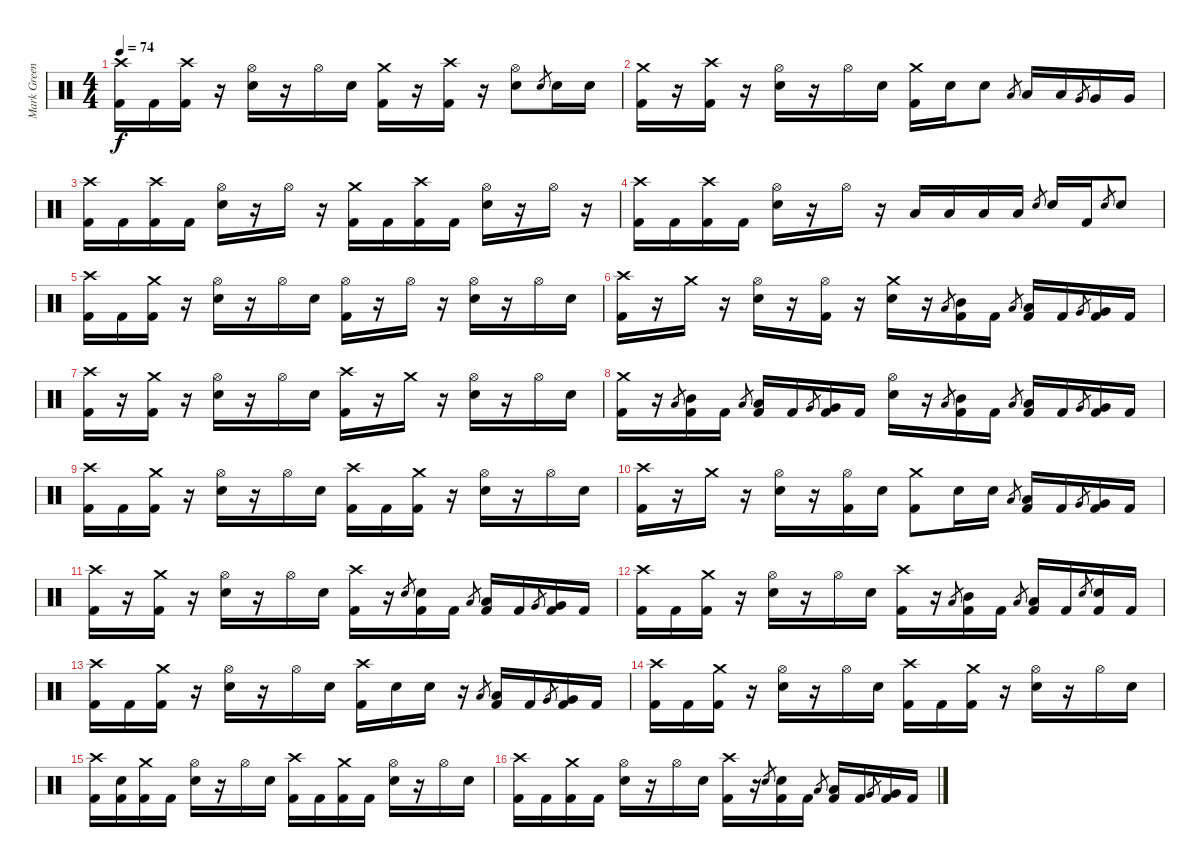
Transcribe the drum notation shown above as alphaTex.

\track ("Mark Greening" "Mark Green") {instrument percussion}
\staff {score}
\articulation defaults
\ts (4 4)
\tempo 74
\clef neutral
\ks c
("Crash high (hit)" "Kick (hit) 2").16{dy f} "Kick (hit) 2".16 ("Crash high (hit)" "Kick (hit) 2").16 r.16 ("Hi-Hat (open)" "Snare (hit) 2").16 r.16 "Hi-Hat (open)".16 "Snare (hit) 2".16 ("Crash medium (hit)" "Kick (hit) 2").16 r.16 ("Crash high (hit)" "Kick (hit) 2").16 r.16 ("Hi-Hat (open)" "Snare (hit) 2").8 "Snare (hit) 2".8{gr} "Snare (hit) 2".16 "Snare (hit) 2".16 |
("Crash medium (hit)" "Kick (hit) 2").16 r.16 ("Crash high (hit)" "Kick (hit) 2").16 r.16 ("Hi-Hat (open)" "Snare (hit) 2").16 r.16 "Hi-Hat (open)".16 "Snare (hit) 2".16 ("Crash medium (hit)" "Kick (hit) 2").16 "Snare (hit) 2".16 "Snare (hit) 2".8 "Low Tom (hit)".8{gr} "Low Tom (hit)".16 "Low Tom (hit)".16 "Very Low Tom (hit)".8{gr} "Very Low Tom (hit)".16 "Very Low Tom (hit)".16 |
("Crash high (hit)" "Kick (hit) 2").16 "Kick (hit) 2".16 ("Crash high (hit)" "Kick (hit) 2").16 "Kick (hit) 2".16 ("Hi-Hat (open)" "Snare (hit) 2").16 r.16 "Hi-Hat (open)".16 r.16 ("Crash medium (hit)" "Kick (hit) 2").16 "Kick (hit) 2".16 ("Crash high (hit)" "Kick (hit) 2").16 "Kick (hit) 2".16 ("Hi-Hat (open)" "Snare (hit) 2").16 r.16 "Hi-Hat (open)".16 r.16 |
("Crash high (hit)" "Kick (hit) 2").16 "Kick (hit) 2".16 ("Crash high (hit)" "Kick (hit) 2").16 "Kick (hit) 2".16 ("Hi-Hat (open)" "Snare (hit) 2").16 r.16 "Hi-Hat (open)".16 r.16 "Low Tom (hit)".16 "Low Tom (hit)".16 "Low Tom (hit)".16 "Low Tom (hit)".16 "Snare (hit) 2".8{gr} "Snare (hit) 2".16 "Kick (hit) 2".16 "Snare (hit) 2".8{gr} "Snare (hit) 2".8 |
("Crash high (hit)" "Kick (hit) 2").16 "Kick (hit) 2".16 ("Crash medium (hit)" "Kick (hit) 2").16 r.16 ("Hi-Hat (open)" "Snare (hit) 2").16 r.16 "Hi-Hat (open)".16 "Snare (hit) 2".16 ("Hi-Hat (open)" "Kick (hit) 2").16 r.16 "Hi-Hat (open)".16 r.16 ("Hi-Hat (open)" "Snare (hit) 2").16 r.16 "Hi-Hat (open)".16 "Snare (hit) 2".16 |
("Crash high (hit)" "Kick (hit) 2").16 r.16 "Crash medium (hit)".16 r.16 ("Hi-Hat (open)" "Snare (hit) 2").16 r.16 ("Hi-Hat (open)" "Kick (hit) 2").16 r.16 ("Crash medium (hit)" "Snare (hit) 2").16 r.16 "Low Tom (hit)".8{gr} ("Mid Tom (hit)" "Kick (hit) 2").16 "Kick (hit) 2".16 "Low Tom (hit)".8{gr} ("Low Tom (hit)" "Kick (hit) 2").16 "Kick (hit) 2".16 "Very Low Tom (hit)".8{gr} ("Very Low Tom (hit)" "Kick (hit) 2").16 "Kick (hit) 2".16 |
("Crash high (hit)" "Kick (hit) 2").16 r.16 ("Crash medium (hit)" "Kick (hit) 2").16 r.16 ("Hi-Hat (open)" "Snare (hit) 2").16 r.16 "Hi-Hat (open)".16 "Snare (hit) 2".16 ("Crash high (hit)" "Kick (hit) 2").16 r.16 "Crash medium (hit)".16 r.16 ("Hi-Hat (open)" "Snare (hit) 2").16 r.16 "Hi-Hat (open)".16 "Snare (hit) 2".16 |
("Crash medium (hit)" "Kick (hit) 2").16 r.16 "Low Tom (hit)".8{gr} ("Mid Tom (hit)" "Kick (hit) 2").16 "Kick (hit) 2".16 "Low Tom (hit)".8{gr} ("Low Tom (hit)" "Kick (hit) 2").16 "Kick (hit) 2".16 "Very Low Tom (hit)".8{gr} ("Very Low Tom (hit)" "Kick (hit) 2").16 "Kick (hit) 2".16 ("Hi-Hat (open)" "Snare (hit) 2").16 r.16 "Low Tom (hit)".8{gr} ("Mid Tom (hit)" "Kick (hit) 2").16 "Kick (hit) 2".16 "Low Tom (hit)".8{gr} ("Low Tom (hit)" "Kick (hit) 2").16 "Kick (hit) 2".16 "Very Low Tom (hit)".8{gr} ("Very Low Tom (hit)" "Kick (hit) 2").16 "Kick (hit) 2".16 |
("Crash high (hit)" "Kick (hit) 2").16 "Kick (hit) 2".16 ("Crash medium (hit)" "Kick (hit) 2").16 r.16 ("Hi-Hat (open)" "Snare (hit) 2").16 r.16 "Hi-Hat (open)".16 "Snare (hit) 2".16 ("Crash high (hit)" "Kick (hit) 2").16 "Kick (hit) 2".16 ("Crash medium (hit)" "Kick (hit) 2").16 r.16 ("Hi-Hat (open)" "Snare (hit) 2").16 r.16 "Hi-Hat (open)".16 "Snare (hit) 2".16 |
("Crash high (hit)" "Kick (hit) 2").16 r.16 "Crash medium (hit)".16 r.16 ("Hi-Hat (open)" "Snare (hit) 2").16 r.16 ("Hi-Hat (open)" "Kick (hit) 2").16 "Snare (hit) 2".16 ("Crash medium (hit)" "Kick (hit) 2").8 "Snare (hit) 2".16 "Snare (hit) 2".16 "Low Tom (hit)".8{gr} ("Low Tom (hit)" "Kick (hit) 2").16 "Kick (hit) 2".16 "Very Low Tom (hit)".8{gr} ("Very Low Tom (hit)" "Kick (hit) 2").16 "Kick (hit) 2".16 |
("Crash high (hit)" "Kick (hit) 2").16 r.16 ("Crash medium (hit)" "Kick (hit) 2").16 r.16 ("Hi-Hat (open)" "Snare (hit) 2").16 r.16 "Hi-Hat (open)".16 "Snare (hit) 2".16 ("Crash high (hit)" "Kick (hit) 2").16 r.16 "Snare (hit) 2".8{gr} ("Snare (hit) 2" "Kick (hit) 2").16 "Kick (hit) 2".16 "Low Tom (hit)".8{gr} ("Low Tom (hit)" "Kick (hit) 2").16 "Kick (hit) 2".16 "Very Low Tom (hit)".8{gr} ("Very Low Tom (hit)" "Kick (hit) 2").16 "Kick (hit) 2".16 |
("Crash high (hit)" "Kick (hit) 2").16 "Kick (hit) 2".16 ("Crash medium (hit)" "Kick (hit) 2").16 r.16 ("Hi-Hat (open)" "Snare (hit) 2").16 r.16 "Hi-Hat (open)".16 "Snare (hit) 2".16 ("Crash high (hit)" "Kick (hit) 2").16 r.16 "Low Tom (hit)".8{gr} ("Mid Tom (hit)" "Kick (hit) 2").16 "Kick (hit) 2".16 "Low Tom (hit)".8{gr} ("Low Tom (hit)" "Kick (hit) 2").16 "Kick (hit) 2".16 "Snare (hit) 2".8{gr} ("Snare (hit) 2" "Kick (hit) 2").16 "Kick (hit) 2".16 |
("Crash high (hit)" "Kick (hit) 2").16 "Kick (hit) 2".16 ("Crash medium (hit)" "Kick (hit) 2").16 r.16 ("Hi-Hat (open)" "Snare (hit) 2").16 r.16 "Hi-Hat (open)".16 "Snare (hit) 2".16 ("Crash high (hit)" "Kick (hit) 2").16 "Snare (hit) 2".16 "Snare (hit) 2".16 r.16 "Low Tom (hit)".8{gr} ("Low Tom (hit)" "Kick (hit) 2").16 "Kick (hit) 2".16 "Very Low Tom (hit)".8{gr} ("Very Low Tom (hit)" "Kick (hit) 2").16 "Kick (hit) 2".16 |
("Crash high (hit)" "Kick (hit) 2").16 "Kick (hit) 2".16 ("Crash medium (hit)" "Kick (hit) 2").16 r.16 ("Hi-Hat (open)" "Snare (hit) 2").16 r.16 "Hi-Hat (open)".16 "Snare (hit) 2".16 ("Crash high (hit)" "Kick (hit) 2").16 "Kick (hit) 2".16 ("Crash medium (hit)" "Kick (hit) 2").16 r.16 ("Hi-Hat (open)" "Snare (hit) 2").16 r.16 "Hi-Hat (open)".16 "Snare (hit) 2".16 |
("Crash high (hit)" "Kick (hit) 2").16 ("Snare (hit) 2" "Kick (hit) 2").16 ("Crash medium (hit)" "Kick (hit) 2").16 "Kick (hit) 2".16 ("Hi-Hat (open)" "Snare (hit) 2").16 r.16 "Hi-Hat (open)".16 "Snare (hit) 2".16 ("Crash high (hit)" "Kick (hit) 2").16 "Kick (hit) 2".16 ("Crash medium (hit)" "Kick (hit) 2").16 "Kick (hit) 2".16 ("Hi-Hat (open)" "Snare (hit) 2").16 r.16 "Hi-Hat (open)".16 "Snare (hit) 2".16 |
("Crash high (hit)" "Kick (hit) 2").16 "Kick (hit) 2".16 ("Crash medium (hit)" "Kick (hit) 2").16 "Kick (hit) 2".16 ("Hi-Hat (open)" "Snare (hit) 2").16 r.16 "Hi-Hat (open)".16 "Snare (hit) 2".16 ("Crash high (hit)" "Kick (hit) 2").16 r.16 "Snare (hit) 2".8{gr} ("Snare (hit) 2" "Kick (hit) 2").16 "Kick (hit) 2".16 "Low Tom (hit)".8{gr} ("Low Tom (hit)" "Kick (hit) 2").16 "Kick (hit) 2".16 "Very Low Tom (hit)".8{gr} ("Very Low Tom (hit)" "Kick (hit) 2").16 "Kick (hit) 2".16
